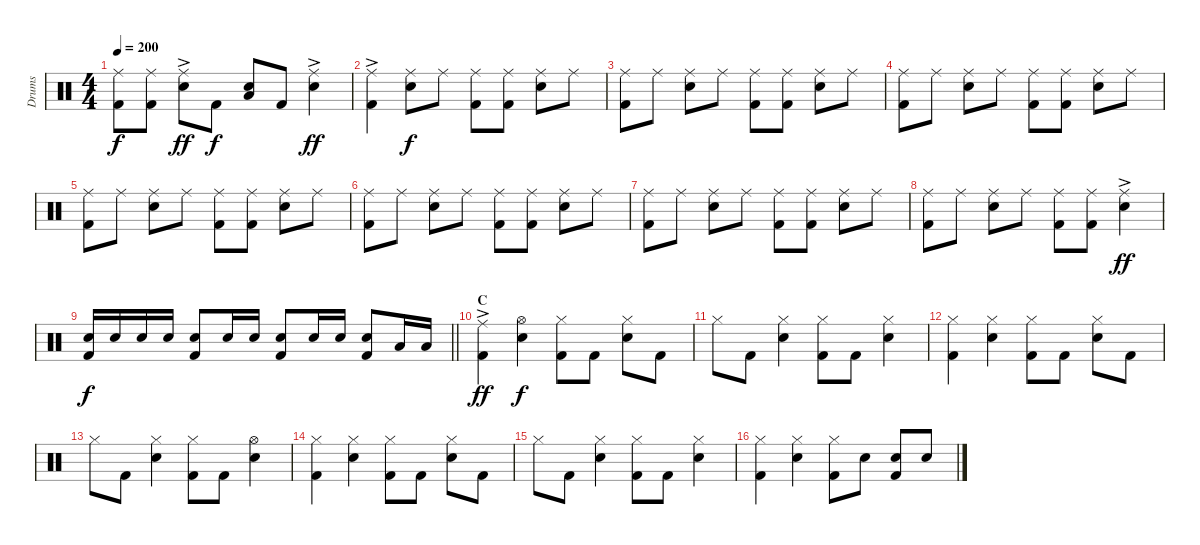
\track ("Drums" "Drums") {instrument percussion}
\staff {score}
\articulation defaults
\ts (4 4)
\tempo 200
\clef neutral
\ks c
("Ride (middle)" "Kick (hit) 2").8{dy f} ("Ride (middle)" "Kick (hit) 2").8 ("Ride (middle)"{ac} "Snare (hit) 2").8{dy ff} "Kick (hit) 2".8{dy f} ("Snare (hit) 2" "Low Tom (hit)").8 "Kick (hit) 2".8 ("Ride (middle)"{ac} "Snare (hit) 2").4{dy ff} |
("Ride (middle)"{ac} "Kick (hit) 2").4 ("Ride (middle)" "Snare (hit) 2").8{dy f} "Ride (middle)".8 ("Ride (middle)" "Kick (hit) 2").8 ("Ride (middle)" "Kick (hit) 2").8 ("Ride (middle)" "Snare (hit) 2").8 "Ride (middle)".8 |
("Ride (middle)" "Kick (hit) 2").8 "Ride (middle)".8 ("Ride (middle)" "Snare (hit) 2").8 "Ride (middle)".8 ("Ride (middle)" "Kick (hit) 2").8 ("Ride (middle)" "Kick (hit) 2").8 ("Ride (middle)" "Snare (hit) 2").8 "Ride (middle)".8 |
("Ride (middle)" "Kick (hit) 2").8 "Ride (middle)".8 ("Ride (middle)" "Snare (hit) 2").8 "Ride (middle)".8 ("Ride (middle)" "Kick (hit) 2").8 ("Ride (middle)" "Kick (hit) 2").8 ("Ride (middle)" "Snare (hit) 2").8 "Ride (middle)".8 |
("Ride (middle)" "Kick (hit) 2").8 "Ride (middle)".8 ("Ride (middle)" "Snare (hit) 2").8 "Ride (middle)".8 ("Ride (middle)" "Kick (hit) 2").8 ("Ride (middle)" "Kick (hit) 2").8 ("Ride (middle)" "Snare (hit) 2").8 "Ride (middle)".8 |
("Ride (middle)" "Kick (hit) 2").8 "Ride (middle)".8 ("Ride (middle)" "Snare (hit) 2").8 "Ride (middle)".8 ("Ride (middle)" "Kick (hit) 2").8 ("Ride (middle)" "Kick (hit) 2").8 ("Ride (middle)" "Snare (hit) 2").8 "Ride (middle)".8 |
("Ride (middle)" "Kick (hit) 2").8 "Ride (middle)".8 ("Ride (middle)" "Snare (hit) 2").8 "Ride (middle)".8 ("Ride (middle)" "Kick (hit) 2").8 ("Ride (middle)" "Kick (hit) 2").8 ("Ride (middle)" "Snare (hit) 2").8 "Ride (middle)".8 |
("Ride (middle)" "Kick (hit) 2").8 "Ride (middle)".8 ("Ride (middle)" "Snare (hit) 2").8 "Ride (middle)".8 ("Ride (middle)" "Kick (hit) 2").8 ("Ride (middle)" "Kick (hit) 2").8 ("Ride (middle)"{ac} "Snare (hit) 2").4{dy ff} |
\barLineRight lightlight
("Snare (hit) 2" "Kick (hit) 2").16{dy f} "Snare (hit) 2".16 "Snare (hit) 2".16 "Snare (hit) 2".16 ("Snare (hit) 2" "Kick (hit) 2").8 "Snare (hit) 2".16 "Snare (hit) 2".16 ("Snare (hit) 2" "Kick (hit) 2").8 "Snare (hit) 2".16 "Snare (hit) 2".16 ("Snare (hit) 2" "Kick (hit) 2").8 "Low Tom (hit)".16 "Low Tom (hit)".16 |
\section ("" "C")
("Ride (middle)"{ac} "Kick (hit) 2").4{dy ff} ("Hi-Hat (open)" "Snare (hit) 2").4{dy f} ("Hi-Hat (closed)" "Kick (hit) 2").8 "Kick (hit) 2".8 ("Hi-Hat (closed)" "Snare (hit) 2").8 "Kick (hit) 2".8 |
"Hi-Hat (closed)".8 "Kick (hit) 2".8 ("Hi-Hat (closed)" "Snare (hit) 2").4 ("Hi-Hat (closed)" "Kick (hit) 2").8 "Kick (hit) 2".8 ("Hi-Hat (closed)" "Snare (hit) 2").4 |
("Hi-Hat (closed)" "Kick (hit) 2").4 ("Hi-Hat (closed)" "Snare (hit) 2").4 ("Hi-Hat (closed)" "Kick (hit) 2").8 "Kick (hit) 2".8 ("Hi-Hat (closed)" "Snare (hit) 2").8 "Kick (hit) 2".8 |
"Hi-Hat (closed)".8 "Kick (hit) 2".8 ("Hi-Hat (closed)" "Snare (hit) 2").4 ("Hi-Hat (closed)" "Kick (hit) 2").8 "Kick (hit) 2".8 ("Hi-Hat (open)" "Snare (hit) 2").4 |
("Hi-Hat (closed)" "Kick (hit) 2").4 ("Hi-Hat (closed)" "Snare (hit) 2").4 ("Hi-Hat (closed)" "Kick (hit) 2").8 "Kick (hit) 2".8 ("Hi-Hat (closed)" "Snare (hit) 2").8 "Kick (hit) 2".8 |
"Hi-Hat (closed)".8 "Kick (hit) 2".8 ("Hi-Hat (closed)" "Snare (hit) 2").4 ("Hi-Hat (closed)" "Kick (hit) 2").8 "Kick (hit) 2".8 ("Hi-Hat (closed)" "Snare (hit) 2").4 |
("Hi-Hat (closed)" "Kick (hit) 2").4 ("Hi-Hat (closed)" "Snare (hit) 2").4 ("Hi-Hat (closed)" "Kick (hit) 2").8 "Snare (hit) 2".8 ("Snare (hit) 2" "Kick (hit) 2").8 "Snare (hit) 2".8
